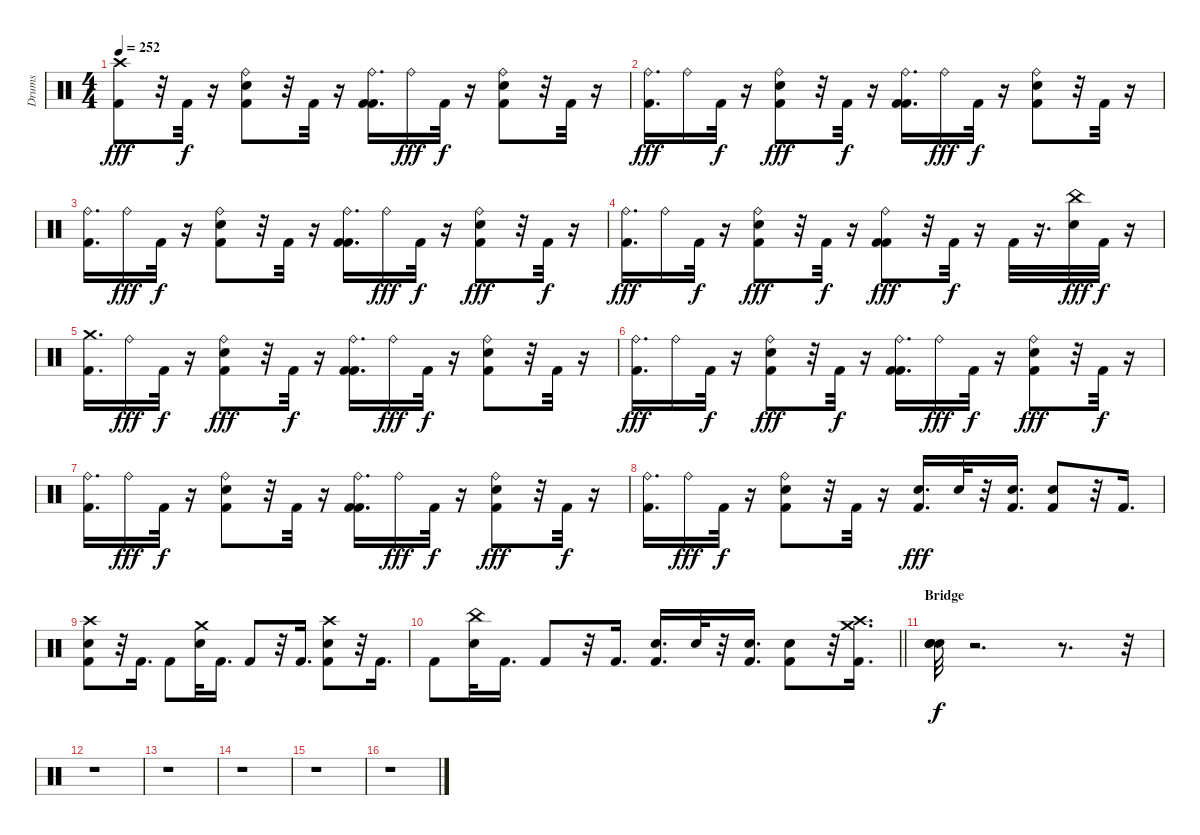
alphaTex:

\track ("Drums" "Drums") {instrument percussion}
\staff {score}
\articulation defaults
\ts (4 4)
\tempo 252
\clef neutral
\ks c
("Crash high (hit)" "Kick (hit) 2").8{dy fff} r.32 "Kick (hit) 2".32{dy f} r.16 ("Kick (hit) 2" "Snare (hit) 2" "Ride (bell)").8 r.32 "Kick (hit) 2".32 r.16 ("Kick (hit) 2" "Ride (bell)" "Kick (hit) 2").16{d} "Ride (bell)".16{dy fff} "Kick (hit) 2".32{dy f} r.16 ("Kick (hit) 2" "Ride (bell)" "Snare (hit) 2").8 r.32 "Kick (hit) 2".32 r.16 |
("Ride (bell)" "Kick (hit) 2").16{d dy fff} "Ride (bell)".16 "Kick (hit) 2".32{dy f} r.16 ("Snare (hit) 2" "Ride (bell)" "Kick (hit) 2").8{dy fff} r.32 "Kick (hit) 2".32{dy f} r.16 ("Kick (hit) 2" "Kick (hit) 2" "Ride (bell)").16{d} "Ride (bell)".16{dy fff} "Kick (hit) 2".32{dy f} r.16 ("Kick (hit) 2" "Snare (hit) 2" "Ride (bell)").8 r.32 "Kick (hit) 2".32 r.16 |
("Kick (hit) 2" "Ride (bell)").16{d} "Ride (bell)".16{dy fff} "Kick (hit) 2".32{dy f} r.16 ("Kick (hit) 2" "Ride (bell)" "Snare (hit) 2").8 r.32 "Kick (hit) 2".32 r.16 ("Kick (hit) 2" "Ride (bell)" "Kick (hit) 2").16{d} "Ride (bell)".16{dy fff} "Kick (hit) 2".32{dy f} r.16 ("Ride (bell)" "Snare (hit) 2" "Kick (hit) 2").8{dy fff} r.32 "Kick (hit) 2".32{dy f} r.16 |
("Ride (bell)" "Kick (hit) 2").16{d dy fff} "Ride (bell)".16 "Kick (hit) 2".32{dy f} r.16 ("Ride (bell)" "Kick (hit) 2" "Snare (hit) 2").8{dy fff} r.32 "Kick (hit) 2".32{dy f} r.16 ("Ride (bell)" "Kick (hit) 2" "Kick (hit) 2").8{dy fff} r.32 "Kick (hit) 2".32{dy f} r.16 "Kick (hit) 2".32 r.16{d} ("Snare (hit) 2" "China (hit)").32{dy fff} "Kick (hit) 2".32{dy f} r.16 |
("Kick (hit) 2" "Crash medium (hit)").16{d} "Ride (bell)".16{dy fff} "Kick (hit) 2".32{dy f} r.16 ("Snare (hit) 2" "Kick (hit) 2" "Ride (bell)").8{dy fff} r.32 "Kick (hit) 2".32{dy f} r.16 ("Kick (hit) 2" "Kick (hit) 2" "Ride (bell)").16{d} "Ride (bell)".16{dy fff} "Kick (hit) 2".32{dy f} r.16 ("Kick (hit) 2" "Snare (hit) 2" "Ride (bell)").8 r.32 "Kick (hit) 2".32 r.16 |
("Ride (bell)" "Kick (hit) 2").16{d dy fff} "Ride (bell)".16 "Kick (hit) 2".32{dy f} r.16 ("Ride (bell)" "Kick (hit) 2" "Snare (hit) 2").8{dy fff} r.32 "Kick (hit) 2".32{dy f} r.16 ("Kick (hit) 2" "Kick (hit) 2" "Ride (bell)").16{d} "Ride (bell)".16{dy fff} "Kick (hit) 2".32{dy f} r.16 ("Ride (bell)" "Kick (hit) 2" "Snare (hit) 2").8{dy fff} r.32 "Kick (hit) 2".32{dy f} r.16 |
("Kick (hit) 2" "Ride (bell)").16{d} "Ride (bell)".16{dy fff} "Kick (hit) 2".32{dy f} r.16 ("Kick (hit) 2" "Ride (bell)" "Snare (hit) 2").8 r.32 "Kick (hit) 2".32 r.16 ("Kick (hit) 2" "Ride (bell)" "Kick (hit) 2").16{d} "Ride (bell)".16{dy fff} "Kick (hit) 2".32{dy f} r.16 ("Snare (hit) 2" "Kick (hit) 2" "Ride (bell)").8{dy fff} r.32 "Kick (hit) 2".32{dy f} r.16 |
("Kick (hit) 2" "Ride (bell)").16{d} "Ride (bell)".16{dy fff} "Kick (hit) 2".32{dy f} r.16 ("Kick (hit) 2" "Ride (bell)" "Snare (hit) 2").8 r.32 "Kick (hit) 2".32 r.16 ("Kick (hit) 2" "Snare (hit) 2").16{d dy fff} "Snare (hit) 2".32 r.32 ("Snare (hit) 2" "Kick (hit) 2").16{d} ("Snare (hit) 2" "Kick (hit) 2").8 r.32 "Kick (hit) 2".16{d} |
("Snare (hit) 2" "Kick (hit) 2" "Crash high (hit)").8 r.32 "Kick (hit) 2".16{d} "Kick (hit) 2".8 ("Crash medium (hit)" "Snare (hit) 2").32 "Kick (hit) 2".16{d} "Kick (hit) 2".8 r.32 "Kick (hit) 2".16{d} ("Kick (hit) 2" "Crash high (hit)" "Snare (hit) 2").8 r.32 "Kick (hit) 2".16{d} |
\barLineRight lightlight "Kick (hit) 2".8
("Snare (hit) 2" "China (hit)").32 "Kick (hit) 2".16{d} "Kick (hit) 2".8 r.32 "Kick (hit) 2".16{d} ("Kick (hit) 2" "Snare (hit) 2").16{d} "Snare (hit) 2".32 r.32 ("Snare (hit) 2" "Kick (hit) 2").16{d} ("Snare (hit) 2" "Kick (hit) 2").8 r.32 ("Kick (hit) 2" "Crash medium (hit)" "Crash high (hit)").16{d} |
\section ("" "Bridge")
("Snare (hit)" "Snare (hit)" "Snare (hit)").32{dy f} r.2{d} r.8{d} r.32 |
r.1 |
r.1 |
r.1 |
r.1 |
r.1
